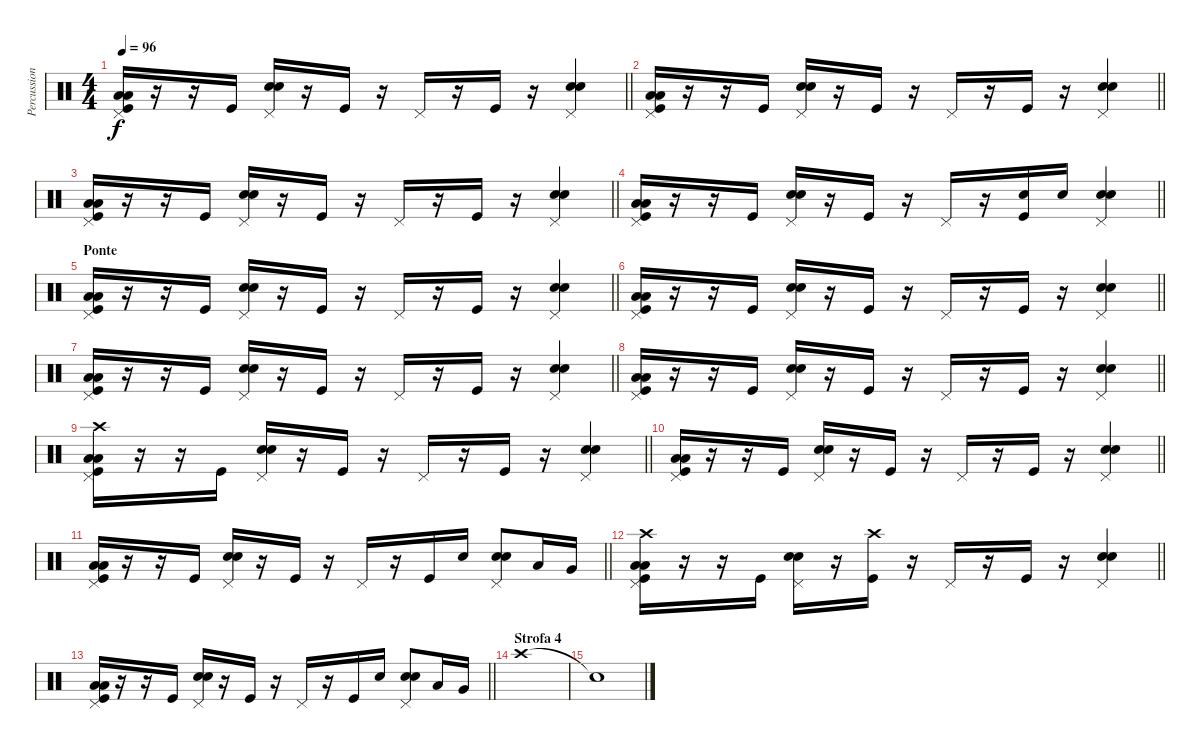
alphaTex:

\track ("Percussioni" "Percussion") {instrument percussion}
\staff {score}
\articulation defaults
\ts (4 4)
\tempo 96
\clef neutral
\barLineRight lightlight
\ks c
("Low Tom (hit)" "Low Tom (hit)" "Kick (hit)" "Pedal Hi-Hat (hit)").16{dy f} r.16 r.16 "Kick (hit)".16 ("Snare (hit) 2" "Snare (hit) 2" "Pedal Hi-Hat (hit)").16 r.16 "Kick (hit)".16 r.16 "Pedal Hi-Hat (hit)".16 r.16 "Kick (hit)".16 r.16 ("Snare (hit) 2" "Snare (hit) 2" "Pedal Hi-Hat (hit)").4 |
\barLineRight lightlight
("Low Tom (hit)" "Low Tom (hit)" "Kick (hit)" "Pedal Hi-Hat (hit)").16 r.16 r.16 "Kick (hit)".16 ("Snare (hit) 2" "Snare (hit) 2" "Pedal Hi-Hat (hit)").16 r.16 "Kick (hit)".16 r.16 "Pedal Hi-Hat (hit)".16 r.16 "Kick (hit)".16 r.16 ("Snare (hit) 2" "Snare (hit) 2" "Pedal Hi-Hat (hit)").4 |
\barLineRight lightlight
("Low Tom (hit)" "Low Tom (hit)" "Kick (hit)" "Pedal Hi-Hat (hit)").16 r.16 r.16 "Kick (hit)".16 ("Snare (hit) 2" "Snare (hit) 2" "Pedal Hi-Hat (hit)").16 r.16 "Kick (hit)".16 r.16 "Pedal Hi-Hat (hit)".16 r.16 "Kick (hit)".16 r.16 ("Snare (hit) 2" "Snare (hit) 2" "Pedal Hi-Hat (hit)").4 |
\barLineRight lightlight
("Low Tom (hit)" "Low Tom (hit)" "Kick (hit)" "Pedal Hi-Hat (hit)").16 r.16 r.16 "Kick (hit)".16 ("Snare (hit) 2" "Snare (hit) 2" "Pedal Hi-Hat (hit)").16 r.16 "Kick (hit)".16 r.16 "Pedal Hi-Hat (hit)".16 r.16 ("Snare (hit) 2" "Kick (hit)").16 "Snare (hit) 2".16 ("Snare (hit) 2" "Snare (hit) 2" "Pedal Hi-Hat (hit)").4 |
\section ("" "Ponte")
\barLineRight lightlight
("Low Tom (hit)" "Low Tom (hit)" "Kick (hit)" "Pedal Hi-Hat (hit)").16 r.16 r.16 "Kick (hit)".16 ("Snare (hit) 2" "Snare (hit) 2" "Pedal Hi-Hat (hit)").16 r.16 "Kick (hit)".16 r.16 "Pedal Hi-Hat (hit)".16 r.16 "Kick (hit)".16 r.16 ("Snare (hit) 2" "Snare (hit) 2" "Pedal Hi-Hat (hit)").4 |
\barLineRight lightlight
("Low Tom (hit)" "Low Tom (hit)" "Kick (hit)" "Pedal Hi-Hat (hit)").16 r.16 r.16 "Kick (hit)".16 ("Snare (hit) 2" "Snare (hit) 2" "Pedal Hi-Hat (hit)").16 r.16 "Kick (hit)".16 r.16 "Pedal Hi-Hat (hit)".16 r.16 "Kick (hit)".16 r.16 ("Snare (hit) 2" "Snare (hit) 2" "Pedal Hi-Hat (hit)").4 |
\barLineRight lightlight
("Low Tom (hit)" "Low Tom (hit)" "Kick (hit)" "Pedal Hi-Hat (hit)").16 r.16 r.16 "Kick (hit)".16 ("Snare (hit) 2" "Snare (hit) 2" "Pedal Hi-Hat (hit)").16 r.16 "Kick (hit)".16 r.16 "Pedal Hi-Hat (hit)".16 r.16 "Kick (hit)".16 r.16 ("Snare (hit) 2" "Snare (hit) 2" "Pedal Hi-Hat (hit)").4 |
\barLineRight lightlight
("Low Tom (hit)" "Low Tom (hit)" "Kick (hit)" "Pedal Hi-Hat (hit)").16 r.16 r.16 "Kick (hit)".16 ("Snare (hit) 2" "Snare (hit) 2" "Pedal Hi-Hat (hit)").16 r.16 "Kick (hit)".16 r.16 "Pedal Hi-Hat (hit)".16 r.16 "Kick (hit)".16 r.16 ("Snare (hit) 2" "Snare (hit) 2" "Pedal Hi-Hat (hit)").4 |
\barLineRight lightlight
("Crash high (hit)" "Low Tom (hit)" "Low Tom (hit)" "Kick (hit)" "Pedal Hi-Hat (hit)").16 r.16 r.16 "Kick (hit)".16 ("Snare (hit) 2" "Snare (hit) 2" "Pedal Hi-Hat (hit)").16 r.16 "Kick (hit)".16 r.16 "Pedal Hi-Hat (hit)".16 r.16 "Kick (hit)".16 r.16 ("Snare (hit) 2" "Snare (hit) 2" "Pedal Hi-Hat (hit)").4 |
\barLineRight lightlight
("Low Tom (hit)" "Low Tom (hit)" "Kick (hit)" "Pedal Hi-Hat (hit)").16 r.16 r.16 "Kick (hit)".16 ("Snare (hit) 2" "Snare (hit) 2" "Pedal Hi-Hat (hit)").16 r.16 "Kick (hit)".16 r.16 "Pedal Hi-Hat (hit)".16 r.16 "Kick (hit)".16 r.16 ("Snare (hit) 2" "Snare (hit) 2" "Pedal Hi-Hat (hit)").4 |
\barLineRight lightlight
("Low Tom (hit)" "Low Tom (hit)" "Kick (hit)" "Pedal Hi-Hat (hit)").16 r.16 r.16 "Kick (hit)".16 ("Snare (hit) 2" "Snare (hit) 2" "Pedal Hi-Hat (hit)").16 r.16 "Kick (hit)".16 r.16 "Pedal Hi-Hat (hit)".16 r.16 "Kick (hit)".16 "Snare (hit) 2".16 ("Snare (hit) 2" "Snare (hit) 2" "Pedal Hi-Hat (hit)").8 "Low Tom (hit)".16 "Very Low Tom (hit)".16 |
\barLineRight lightlight
("Crash high (hit)" "Low Tom (hit)" "Low Tom (hit)" "Kick (hit)" "Pedal Hi-Hat (hit)").16 r.16 r.16 "Kick (hit)".16 ("Snare (hit) 2" "Snare (hit) 2" "Pedal Hi-Hat (hit)").16 r.16 ("Crash high (hit)" "Kick (hit)").16 r.16 "Pedal Hi-Hat (hit)".16 r.16 "Kick (hit)".16 r.16 ("Snare (hit) 2" "Snare (hit) 2" "Pedal Hi-Hat (hit)").4 |
\barLineRight lightlight
("Low Tom (hit)" "Low Tom (hit)" "Kick (hit)" "Pedal Hi-Hat (hit)").16 r.16 r.16 "Kick (hit)".16 ("Snare (hit) 2" "Snare (hit) 2" "Pedal Hi-Hat (hit)").16 r.16 "Kick (hit)".16 r.16 "Pedal Hi-Hat (hit)".16 r.16 "Kick (hit)".16 "Snare (hit) 2".16 ("Snare (hit) 2" "Snare (hit) 2" "Pedal Hi-Hat (hit)").8 "Low Tom (hit)".16 "Very Low Tom (hit)".16 |
\section ("" "Strofa 4")
"Crash high (hit)".1 |
"Snare (hit)"{t}.1
